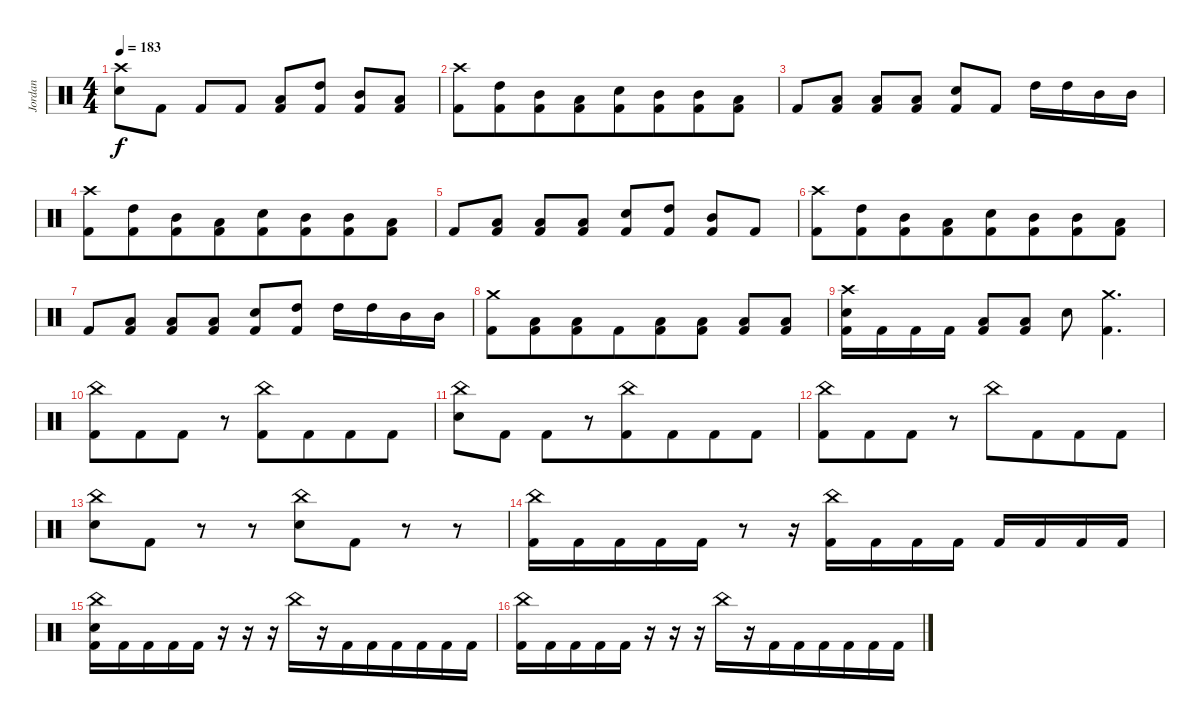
\track ("Jordan" "Jordan") {instrument percussion bank 82}
\staff {score}
\articulation defaults
\ts (4 4)
\tempo 183
\clef neutral
\ks c
("Crash high (hit)" "Snare (hit) 2").8{dy f} "Kick (hit) 2".8 "Kick (hit) 2".8{beam merge} "Kick (hit) 2".8 ("Low Tom (hit)" "Kick (hit) 2").8 ("Kick (hit) 2" "High Tom (hit)").8 ("Kick (hit) 2" "Mid Tom (hit)").8 ("Kick (hit) 2" "Low Tom (hit)").8 |
("Crash high (hit)" "Kick (hit) 2").8{beam merge} ("High Tom (hit)" "Kick (hit) 2").8{beam merge} ("Mid Tom (hit)" "Kick (hit) 2").8 ("Low Tom (hit)" "Kick (hit) 2").8{beam merge} ("Kick (hit) 2" "Snare (hit) 2").8 ("Mid Tom (hit)" "Kick (hit) 2").8{beam merge} ("Mid Tom (hit)" "Kick (hit) 2").8{beam merge} ("Low Tom (hit)" "Kick (hit) 2").8 |
"Kick (hit) 2".8 ("Low Tom (hit)" "Kick (hit) 2").8 ("Low Tom (hit)" "Kick (hit) 2").8{beam merge} ("Low Tom (hit)" "Kick (hit) 2").8 ("Kick (hit) 2" "Snare (hit) 2").8 "Kick (hit) 2".8 "High Tom (hit)".16 "High Tom (hit)".16{beam merge} "Mid Tom (hit)".16{beam merge} "Mid Tom (hit)".16 |
("Crash high (hit)" "Kick (hit) 2").8{beam merge} ("High Tom (hit)" "Kick (hit) 2").8{beam merge} ("Mid Tom (hit)" "Kick (hit) 2").8 ("Low Tom (hit)" "Kick (hit) 2").8{beam merge} ("Kick (hit) 2" "Snare (hit) 2").8 ("Mid Tom (hit)" "Kick (hit) 2").8{beam merge} ("Mid Tom (hit)" "Kick (hit) 2").8{beam merge} ("Low Tom (hit)" "Kick (hit) 2").8 |
"Kick (hit) 2".8 ("Low Tom (hit)" "Kick (hit) 2").8 ("Low Tom (hit)" "Kick (hit) 2").8{beam merge} ("Low Tom (hit)" "Kick (hit) 2").8 ("Kick (hit) 2" "Snare (hit) 2").8 ("High Tom (hit)" "Kick (hit) 2").8 ("Mid Tom (hit)" "Kick (hit) 2").8 "Kick (hit) 2".8 |
("Crash high (hit)" "Kick (hit) 2").8{beam merge} ("High Tom (hit)" "Kick (hit) 2").8{beam merge} ("Mid Tom (hit)" "Kick (hit) 2").8 ("Low Tom (hit)" "Kick (hit) 2").8{beam merge} ("Kick (hit) 2" "Snare (hit) 2").8 ("Mid Tom (hit)" "Kick (hit) 2").8{beam merge} ("Mid Tom (hit)" "Kick (hit) 2").8{beam merge} ("Low Tom (hit)" "Kick (hit) 2").8 |
"Kick (hit) 2".8 ("Low Tom (hit)" "Kick (hit) 2").8 ("Low Tom (hit)" "Kick (hit) 2").8{beam merge} ("Low Tom (hit)" "Kick (hit) 2").8 ("Kick (hit) 2" "Snare (hit) 2").8 ("High Tom (hit)" "Kick (hit) 2").8 "High Tom (hit)".16 "High Tom (hit)".16{beam merge} "Mid Tom (hit)".16{beam merge} "Mid Tom (hit)".16 |
("Crash medium (hit)" "Kick (hit) 2").8 ("Low Tom (hit)" "Kick (hit) 2").8{beam merge} ("Low Tom (hit)" "Kick (hit) 2").8 "Kick (hit) 2".8{beam merge} ("Low Tom (hit)" "Kick (hit) 2").8{beam merge} ("Low Tom (hit)" "Kick (hit) 2").8 ("Low Tom (hit)" "Kick (hit) 2").8 ("Low Tom (hit)" "Kick (hit) 2").8 |
("Crash high (hit)" "Snare (hit) 2" "Kick (hit) 2").16 "Kick (hit) 2".16 "Kick (hit) 2".16{beam merge} "Kick (hit) 2".16 ("Low Tom (hit)" "Kick (hit) 2").8 ("Low Tom (hit)" "Kick (hit) 2").8 "Snare (hit) 2".8 ("Crash medium (hit)" "Kick (hit) 2").4{d} |
("China (hit)" "Kick (hit) 2").8 "Kick (hit) 2".8{beam merge} "Kick (hit) 2".8 r.8{beam merge} ("China (hit)" "Kick (hit) 2").8 "Kick (hit) 2".8{beam merge} "Kick (hit) 2".8 "Kick (hit) 2".8 |
("China (hit)" "Snare (hit) 2").8 "Kick (hit) 2".8 "Kick (hit) 2".8{beam merge} r.8 ("China (hit)" "Kick (hit) 2").8 "Kick (hit) 2".8{beam merge} "Kick (hit) 2".8 "Kick (hit) 2".8 |
("China (hit)" "Kick (hit) 2").8 "Kick (hit) 2".8{beam merge} "Kick (hit) 2".8 r.8{beam merge} "China (hit)".8 "Kick (hit) 2".8{beam merge} "Kick (hit) 2".8 "Kick (hit) 2".8 |
("China (hit)" "Snare (hit) 2").8{beam merge} "Kick (hit) 2".8 r.8 r.8 ("China (hit)" "Snare (hit) 2").8{beam merge} "Kick (hit) 2".8 r.8 r.8 |
("China (hit)" "Kick (hit) 2").16 "Kick (hit) 2".16{beam merge} "Kick (hit) 2".16{beam merge} "Kick (hit) 2".16{beam merge} "Kick (hit) 2".16 r.8 r.16{beam merge} ("China (hit)" "Kick (hit) 2").16{beam merge} "Kick (hit) 2".16{beam merge} "Kick (hit) 2".16{beam merge} "Kick (hit) 2".16 "Kick (hit) 2".16 "Kick (hit) 2".16{beam merge} "Kick (hit) 2".16{beam merge} "Kick (hit) 2".16 |
("China (hit)" "Snare (hit) 2" "Kick (hit) 2").16 "Kick (hit) 2".16{beam merge} "Kick (hit) 2".16{beam merge} "Kick (hit) 2".16{beam merge} "Kick (hit) 2".16 r.16 r.16 r.16{beam merge} "China (hit)".16{beam merge} r.16{beam merge} "Kick (hit) 2".16{beam merge} "Kick (hit) 2".16{beam merge} "Kick (hit) 2".16 "Kick (hit) 2".16{beam merge} "Kick (hit) 2".16{beam merge} "Kick (hit) 2".16 |
("China (hit)" "Kick (hit) 2").16 "Kick (hit) 2".16{beam merge} "Kick (hit) 2".16{beam merge} "Kick (hit) 2".16{beam merge} "Kick (hit) 2".16 r.16 r.16 r.16{beam merge} "China (hit)".16{beam merge} r.16{beam merge} "Kick (hit) 2".16{beam merge} "Kick (hit) 2".16{beam merge} "Kick (hit) 2".16 "Kick (hit) 2".16{beam merge} "Kick (hit) 2".16{beam merge} "Kick (hit) 2".16
